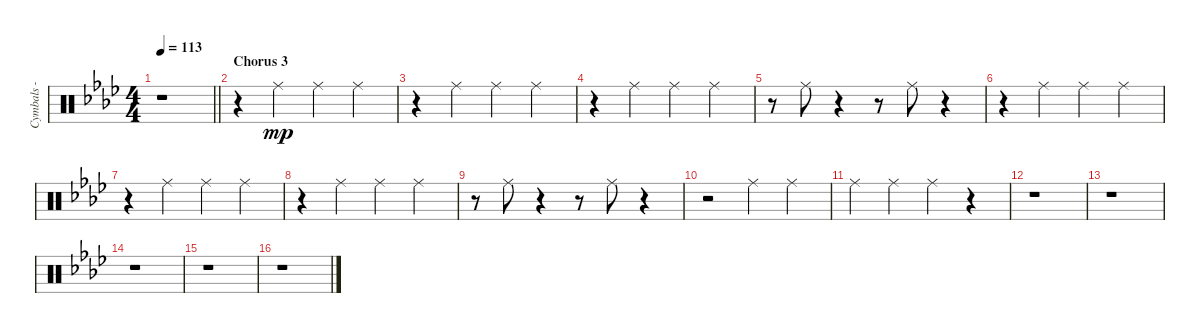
\track ("Cymbals - ride" "Cymbals - ") {instrument percussion}
\staff {score}
\articulation defaults
\ts (4 4)
\tempo 113
\clef neutral
\barLineRight lightlight
\ks fminor
r.1{dy mp} |
\section ("" "Chorus 3")
r.4 "Ride (middle)".4 "Ride (middle)".4 "Ride (middle)".4 |
r.4 "Ride (middle)".4 "Ride (middle)".4 "Ride (middle)".4 |
r.4 "Ride (middle)".4 "Ride (middle)".4 "Ride (middle)".4 |
r.8 "Ride (middle)".8 r.4 r.8 "Ride (middle)".8 r.4 |
r.4 "Ride (middle)".4 "Ride (middle)".4 "Ride (middle)".4 |
r.4 "Ride (middle)".4 "Ride (middle)".4 "Ride (middle)".4 |
r.4 "Ride (middle)".4 "Ride (middle)".4 "Ride (middle)".4 |
r.8 "Ride (middle)".8 r.4 r.8 "Ride (middle)".8 r.4 |
r.2 "Ride (middle)".4 "Ride (middle)".4 |
"Ride (middle)".4 "Ride (middle)".4 "Ride (middle)".4 r.4 |
r.1 |
r.1 |
r.1 |
r.1 |
r.1
